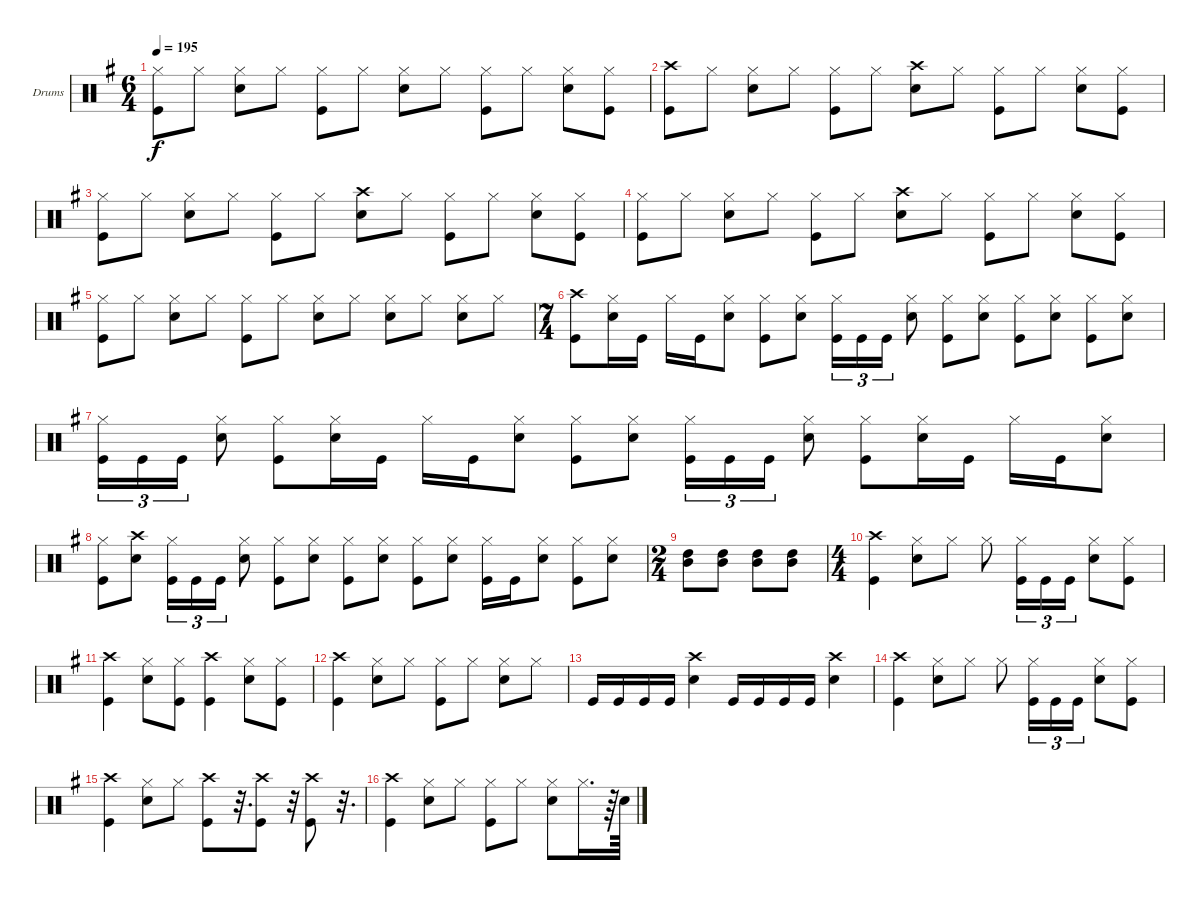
\defaultSystemsLayout 4
\bracketExtendMode groupsimilarinstruments
\firstSystemTrackNameOrientation horizontal
\otherSystemsTrackNameOrientation horizontal
\track ("Drumkit" "Drums") {instrument percussion}
\staff {score}
\articulation defaults
\ts (6 4)
\tempo 195
\clef neutral
\ks g
("Hi-Hat (closed)" "Kick (hit)").8{dy f} "Hi-Hat (closed)".8 ("Snare (hit) 2" "Hi-Hat (closed)").8 "Hi-Hat (closed)".8 ("Kick (hit)" "Hi-Hat (closed)").8 "Hi-Hat (closed)".8 ("Snare (hit) 2" "Hi-Hat (closed)").8 "Hi-Hat (closed)".8 ("Kick (hit)" "Hi-Hat (closed)").8 "Hi-Hat (closed)".8 ("Snare (hit) 2" "Hi-Hat (closed)").8 ("Kick (hit)" "Hi-Hat (closed)").8 |
("Kick (hit)" "Crash high (hit)").8 "Hi-Hat (closed)".8 ("Snare (hit) 2" "Hi-Hat (closed)").8 "Hi-Hat (closed)".8 ("Kick (hit)" "Hi-Hat (closed)").8 "Hi-Hat (closed)".8 ("Crash high (hit)" "Snare (hit) 2").8 "Hi-Hat (closed)".8 ("Kick (hit)" "Hi-Hat (closed)").8 "Hi-Hat (closed)".8 ("Snare (hit) 2" "Hi-Hat (closed)").8 ("Kick (hit)" "Hi-Hat (closed)").8 |
("Hi-Hat (closed)" "Kick (hit)").8 "Hi-Hat (closed)".8 ("Snare (hit) 2" "Hi-Hat (closed)").8 "Hi-Hat (closed)".8 ("Kick (hit)" "Hi-Hat (closed)").8 "Hi-Hat (closed)".8 ("Crash high (hit)" "Snare (hit) 2").8 "Hi-Hat (closed)".8 ("Kick (hit)" "Hi-Hat (closed)").8 "Hi-Hat (closed)".8 ("Snare (hit) 2" "Hi-Hat (closed)").8 ("Kick (hit)" "Hi-Hat (closed)").8 |
("Hi-Hat (closed)" "Kick (hit)").8 "Hi-Hat (closed)".8 ("Snare (hit) 2" "Hi-Hat (closed)").8 "Hi-Hat (closed)".8 ("Kick (hit)" "Hi-Hat (closed)").8 "Hi-Hat (closed)".8 ("Crash high (hit)" "Snare (hit) 2").8 "Hi-Hat (closed)".8 ("Kick (hit)" "Hi-Hat (closed)").8 "Hi-Hat (closed)".8 ("Snare (hit) 2" "Hi-Hat (closed)").8 ("Kick (hit)" "Hi-Hat (closed)").8 |
("Hi-Hat (closed)" "Kick (hit)").8 "Hi-Hat (closed)".8 ("Snare (hit) 2" "Hi-Hat (closed)").8 "Hi-Hat (closed)".8 ("Kick (hit)" "Hi-Hat (closed)").8 "Hi-Hat (closed)".8 ("Snare (hit) 2" "Hi-Hat (closed)").8 "Hi-Hat (closed)".8 ("Snare (hit) 2" "Hi-Hat (closed)").8 "Hi-Hat (closed)".8 ("Snare (hit) 2" "Hi-Hat (closed)").8 "Hi-Hat (closed)".8 |
\ts (7 4)
("Kick (hit)" "Crash high (hit)").8 ("Snare (hit) 2" "Hi-Hat (closed)").16 "Kick (hit)".16 "Hi-Hat (closed)".16 "Kick (hit)".16 ("Snare (hit) 2" "Hi-Hat (closed)").8 ("Kick (hit)" "Hi-Hat (closed)").8 ("Snare (hit) 2" "Hi-Hat (closed)").8 ("Kick (hit)" "Hi-Hat (closed)").16{tu (3 2)} "Kick (hit)".16{tu (3 2)} "Kick (hit)".16{tu (3 2)} ("Snare (hit) 2" "Hi-Hat (closed)").8 ("Kick (hit)" "Hi-Hat (closed)").8 ("Snare (hit) 2" "Hi-Hat (closed)").8 ("Kick (hit)" "Hi-Hat (closed)").8 ("Snare (hit) 2" "Hi-Hat (closed)").8 ("Kick (hit)" "Hi-Hat (closed)").8 ("Snare (hit) 2" "Hi-Hat (closed)").8 |
("Kick (hit)" "Hi-Hat (closed)").16{tu (3 2)} "Kick (hit)".16{tu (3 2)} "Kick (hit)".16{tu (3 2)} ("Snare (hit) 2" "Hi-Hat (closed)").8 ("Kick (hit)" "Hi-Hat (closed)").8 ("Snare (hit) 2" "Hi-Hat (closed)").16 "Kick (hit)".16 "Hi-Hat (closed)".16 "Kick (hit)".16 ("Snare (hit) 2" "Hi-Hat (closed)").8 ("Kick (hit)" "Hi-Hat (closed)").8 ("Snare (hit) 2" "Hi-Hat (closed)").8 ("Kick (hit)" "Hi-Hat (closed)").16{tu (3 2)} "Kick (hit)".16{tu (3 2)} "Kick (hit)".16{tu (3 2)} ("Snare (hit) 2" "Hi-Hat (closed)").8 ("Kick (hit)" "Hi-Hat (closed)").8 ("Snare (hit) 2" "Hi-Hat (closed)").16 "Kick (hit)".16 "Hi-Hat (closed)".16 "Kick (hit)".16 ("Snare (hit) 2" "Hi-Hat (closed)").8 |
("Kick (hit)" "Hi-Hat (closed)").8 ("Crash high (hit)" "Snare (hit) 2").8 ("Kick (hit)" "Hi-Hat (closed)").16{tu (3 2)} "Kick (hit)".16{tu (3 2)} "Kick (hit)".16{tu (3 2)} ("Snare (hit) 2" "Hi-Hat (closed)").8 ("Hi-Hat (closed)" "Kick (hit)").8 ("Hi-Hat (closed)" "Snare (hit) 2").8 ("Hi-Hat (closed)" "Kick (hit)").8 ("Snare (hit) 2" "Hi-Hat (closed)").8 ("Hi-Hat (closed)" "Kick (hit)").8 ("Snare (hit) 2" "Hi-Hat (closed)").8 ("Hi-Hat (closed)" "Kick (hit)").16 "Kick (hit)".16 ("Snare (hit) 2" "Hi-Hat (closed)").8 ("Hi-Hat (closed)" "Kick (hit)").8 ("Snare (hit) 2" "Hi-Hat (closed)").8 |
\ts (2 4)
("High Tom (hit)" "Mid Tom (hit)").8 ("High Tom (hit)" "Mid Tom (hit)").8 ("High Tom (hit)" "Mid Tom (hit)").8 ("High Tom (hit)" "Mid Tom (hit)").8 |
\ts (4 4)
("Kick (hit)" "Crash high (hit)").4 ("Snare (hit) 2" "Hi-Hat (closed)").8 "Hi-Hat (closed)".8 "Hi-Hat (closed)".8 ("Kick (hit)" "Hi-Hat (closed)").16{tu (3 2)} "Kick (hit)".16{tu (3 2)} "Kick (hit)".16{tu (3 2)} ("Snare (hit) 2" "Hi-Hat (closed)").8 ("Kick (hit)" "Hi-Hat (closed)").8 |
("Kick (hit)" "Crash high (hit)").4 ("Hi-Hat (closed)" "Snare (hit) 2").8 ("Kick (hit)" "Hi-Hat (closed)").8 ("Crash high (hit)" "Kick (hit)").4 ("Hi-Hat (closed)" "Snare (hit) 2").8 ("Kick (hit)" "Hi-Hat (closed)").8 |
("Kick (hit)" "Crash high (hit)").4 ("Hi-Hat (closed)" "Snare (hit) 2").8 "Hi-Hat (closed)".8 ("Hi-Hat (closed)" "Kick (hit)").8 "Hi-Hat (closed)".8 ("Snare (hit) 2" "Hi-Hat (closed)").8 "Hi-Hat (closed)".8 |
"Kick (hit)".16 "Kick (hit)".16 "Kick (hit)".16 "Kick (hit)".16 ("Crash high (hit)" "Snare (hit) 2").4 "Kick (hit)".16 "Kick (hit)".16 "Kick (hit)".16 "Kick (hit)".16 ("Snare (hit) 2" "Crash high (hit)").4 |
("Kick (hit)" "Crash high (hit)").4 ("Snare (hit) 2" "Hi-Hat (closed)").8 "Hi-Hat (closed)".8 "Hi-Hat (closed)".8 ("Kick (hit)" "Hi-Hat (closed)").16{tu (3 2)} "Kick (hit)".16{tu (3 2)} "Kick (hit)".16{tu (3 2)} ("Snare (hit) 2" "Hi-Hat (closed)").8 ("Kick (hit)" "Hi-Hat (closed)").8 |
("Kick (hit)" "Crash high (hit)").4 ("Hi-Hat (closed)" "Snare (hit) 2").8 "Hi-Hat (closed)".8 ("Kick (hit)" "Crash high (hit)").8 r.32{d} ("Kick (hit)" "Crash high (hit)").8 r.32 ("Kick (hit)" "Crash high (hit)").8 r.32{d} |
("Kick (hit)" "Crash high (hit)").4 ("Hi-Hat (closed)" "Snare (hit) 2").8 "Hi-Hat (closed)".8 ("Hi-Hat (closed)" "Kick (hit)").8 "Hi-Hat (closed)".8 ("Snare (hit) 2" "Hi-Hat (closed)").8 "Hi-Hat (closed)".16{d} r.64 "Snare (hit) 2".64
